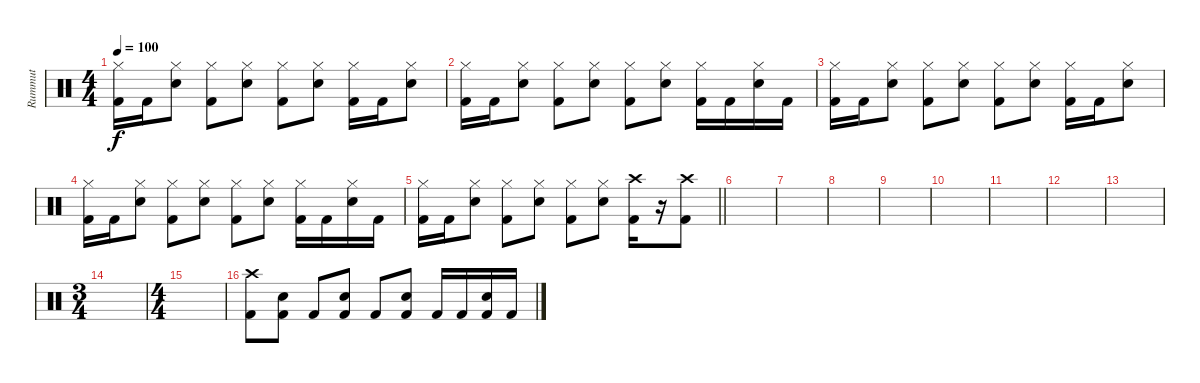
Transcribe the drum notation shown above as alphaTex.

\track ("Rummut" "Rummut") {instrument percussion}
\staff {score}
\articulation defaults
\ts (4 4)
\tempo 100
\clef neutral
\ks c
("Hi-Hat (closed)" "Kick (hit) 2").16{dy f} "Kick (hit) 2".16 ("Hi-Hat (closed)" "Snare (hit) 2").8 ("Hi-Hat (closed)" "Kick (hit) 2").8 ("Hi-Hat (closed)" "Snare (hit) 2").8 ("Hi-Hat (closed)" "Kick (hit) 2").8 ("Hi-Hat (closed)" "Snare (hit) 2").8 ("Hi-Hat (closed)" "Kick (hit) 2").16 "Kick (hit) 2".16 ("Hi-Hat (closed)" "Snare (hit) 2").8 |
("Hi-Hat (closed)" "Kick (hit) 2").16 "Kick (hit) 2".16 ("Hi-Hat (closed)" "Snare (hit) 2").8 ("Hi-Hat (closed)" "Kick (hit) 2").8 ("Hi-Hat (closed)" "Snare (hit) 2").8 ("Hi-Hat (closed)" "Kick (hit) 2").8 ("Hi-Hat (closed)" "Snare (hit) 2").8 ("Hi-Hat (closed)" "Kick (hit) 2").16 "Kick (hit) 2".16 ("Hi-Hat (closed)" "Snare (hit) 2").16 "Kick (hit) 2".16 |
("Hi-Hat (closed)" "Kick (hit) 2").16 "Kick (hit) 2".16 ("Hi-Hat (closed)" "Snare (hit) 2").8 ("Hi-Hat (closed)" "Kick (hit) 2").8 ("Hi-Hat (closed)" "Snare (hit) 2").8 ("Hi-Hat (closed)" "Kick (hit) 2").8 ("Hi-Hat (closed)" "Snare (hit) 2").8 ("Hi-Hat (closed)" "Kick (hit) 2").16 "Kick (hit) 2".16 ("Hi-Hat (closed)" "Snare (hit) 2").8 |
("Hi-Hat (closed)" "Kick (hit) 2").16 "Kick (hit) 2".16 ("Hi-Hat (closed)" "Snare (hit) 2").8 ("Hi-Hat (closed)" "Kick (hit) 2").8 ("Hi-Hat (closed)" "Snare (hit) 2").8 ("Hi-Hat (closed)" "Kick (hit) 2").8 ("Hi-Hat (closed)" "Snare (hit) 2").8 ("Hi-Hat (closed)" "Kick (hit) 2").16 "Kick (hit) 2".16 ("Hi-Hat (closed)" "Snare (hit) 2").16 "Kick (hit) 2".16 |
\barLineRight lightlight
("Hi-Hat (closed)" "Kick (hit) 2").16 "Kick (hit) 2".16 ("Hi-Hat (closed)" "Snare (hit) 2").8 ("Hi-Hat (closed)" "Kick (hit) 2").8 ("Hi-Hat (closed)" "Snare (hit) 2").8 ("Hi-Hat (closed)" "Kick (hit) 2").8 ("Hi-Hat (closed)" "Snare (hit) 2").8 ("Crash high (hit)" "Kick (hit) 2").16 r.16 ("Crash high (hit)" "Kick (hit) 2").8 |
|
|
|
|
|
|
|
|
\ts (3 4)
|
\ts (4 4)
|
("Crash high (hit)" "Kick (hit) 2").8 ("Snare (hit) 2" "Kick (hit) 2").8 "Kick (hit) 2".8 ("Snare (hit) 2" "Kick (hit) 2").8 "Kick (hit) 2".8 ("Snare (hit) 2" "Kick (hit) 2").8 "Kick (hit) 2".16 "Kick (hit) 2".16 ("Snare (hit) 2" "Kick (hit) 2").16 "Kick (hit) 2".16
